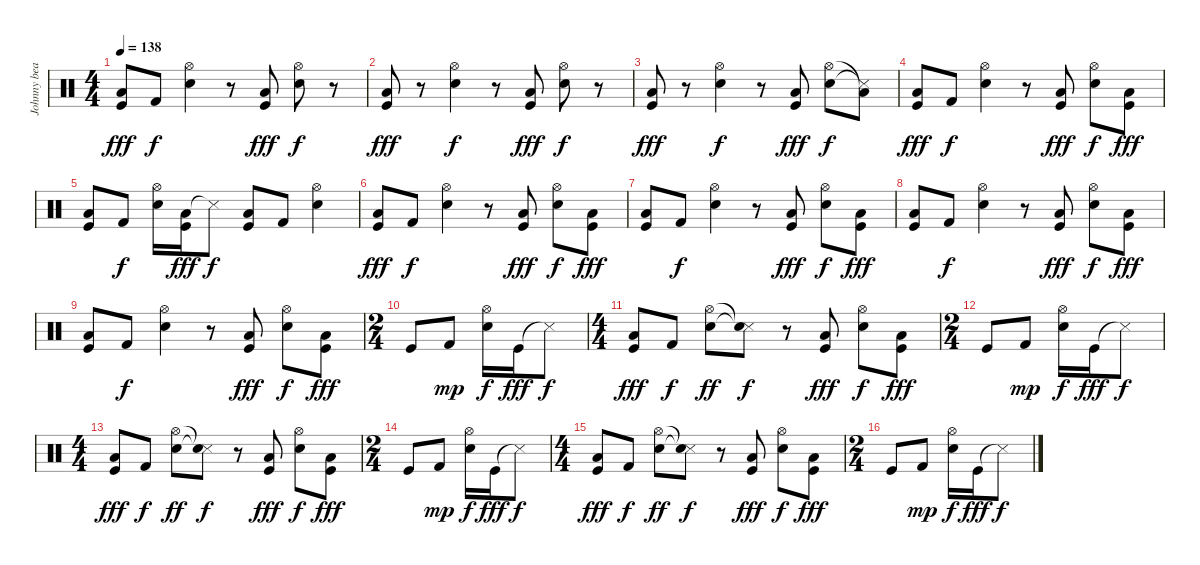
\track ("Johnny beat" "Johnny bea") {instrument percussion}
\staff {score}
\articulation defaults
\ts (4 4)
\tempo 138
\clef neutral
\ks c
("Low Tom (hit)" "Kick (hit)").8{dy fff} "Kick (hit) 2".8{dy f} ("Electric Snare (hit)" "Hi-Hat (open)").4 r.8 ("Low Tom (hit)" "Kick (hit)").8{dy fff} ("Electric Snare (hit)" "Hi-Hat (open)").8{dy f} r.8 |
("Low Tom (hit)" "Kick (hit)").8{dy fff} r.8 ("Electric Snare (hit)" "Hi-Hat (open)").4{dy f} r.8 ("Low Tom (hit)" "Kick (hit)").8{dy fff} ("Electric Snare (hit)" "Hi-Hat (open)").8{dy f} r.8 |
("Low Tom (hit)" "Kick (hit)").8{dy fff} r.8 ("Electric Snare (hit)" "Hi-Hat (open)").4{dy f} r.8 ("Low Tom (hit)" "Kick (hit)").8{dy fff} ("Electric Snare (hit)" "Hi-Hat (open)").8{dy f} ("Snare (side stick) 3"{t} "Low Tom (hit)"{t}).8 |
("Low Tom (hit)" "Kick (hit)").8{dy fff} "Kick (hit) 2".8{dy f} ("Electric Snare (hit)" "Hi-Hat (open)").4 r.8 ("Low Tom (hit)" "Kick (hit)").8{dy fff} ("Electric Snare (hit)" "Hi-Hat (open)").8{dy f} ("Low Tom (hit)" "Kick (hit)").8{dy fff} |
("Low Tom (hit)" "Kick (hit)").8 "Kick (hit) 2".8{dy f} ("Electric Snare (hit)" "Hi-Hat (open)").16 ("Low Tom (hit)" "Kick (hit)").16{dy fff} "Snare (side stick) 3"{t}.8{dy f} ("Kick (hit)" "Low Tom (hit)").8 "Kick (hit) 2".8 ("Electric Snare (hit)" "Hi-Hat (open)").4 |
("Low Tom (hit)" "Kick (hit)").8{dy fff} "Kick (hit) 2".8{dy f} ("Electric Snare (hit)" "Hi-Hat (open)").4 r.8 ("Low Tom (hit)" "Kick (hit)").8{dy fff} ("Electric Snare (hit)" "Hi-Hat (open)").8{dy f} ("Low Tom (hit)" "Kick (hit)").8{dy fff} |
("Low Tom (hit)" "Kick (hit)").8 "Kick (hit) 2".8{dy f} ("Electric Snare (hit)" "Hi-Hat (open)").4 r.8 ("Low Tom (hit)" "Kick (hit)").8{dy fff} ("Electric Snare (hit)" "Hi-Hat (open)").8{dy f} ("Low Tom (hit)" "Kick (hit)").8{dy fff} |
("Low Tom (hit)" "Kick (hit)").8 "Kick (hit) 2".8{dy f} ("Electric Snare (hit)" "Hi-Hat (open)").4 r.8 ("Low Tom (hit)" "Kick (hit)").8{dy fff} ("Electric Snare (hit)" "Hi-Hat (open)").8{dy f} ("Low Tom (hit)" "Kick (hit)").8{dy fff} |
("Low Tom (hit)" "Kick (hit)").8 "Kick (hit) 2".8{dy f} ("Electric Snare (hit)" "Hi-Hat (open)").4 r.8 ("Low Tom (hit)" "Kick (hit)").8{dy fff} ("Electric Snare (hit)" "Hi-Hat (open)").8{dy f} ("Low Tom (hit)" "Kick (hit)").8{dy fff} |
\ts (2 4)
"Kick (hit)".8 "Kick (hit) 2".8{dy mp} ("Electric Snare (hit)" "Hi-Hat (open)").16{dy f} "Kick (hit)".16{dy fff} "Snare (side stick) 3"{t}.8{dy f} |
\ts (4 4)
("Low Tom (hit)" "Kick (hit)").8{dy fff} "Kick (hit) 2".8{dy f} ("Electric Snare (hit)" "Hi-Hat (open)").8{dy ff} ("Snare (side stick) 3"{t} "Snare (hit)"{t}).8{dy f} r.8 ("Low Tom (hit)" "Kick (hit)").8{dy fff} ("Electric Snare (hit)" "Hi-Hat (open)").8{dy f} ("Low Tom (hit)" "Kick (hit)").8{dy fff} |
\ts (2 4)
"Kick (hit)".8 "Kick (hit) 2".8{dy mp} ("Electric Snare (hit)" "Hi-Hat (open)").16{dy f} "Kick (hit)".16{dy fff} "Snare (side stick) 3"{t}.8{dy f} |
\ts (4 4)
("Low Tom (hit)" "Kick (hit)").8{dy fff} "Kick (hit) 2".8{dy f} ("Electric Snare (hit)" "Hi-Hat (open)").8{dy ff} ("Snare (side stick) 3"{t} "Snare (hit)"{t}).8{dy f} r.8 ("Low Tom (hit)" "Kick (hit)").8{dy fff} ("Electric Snare (hit)" "Hi-Hat (open)").8{dy f} ("Low Tom (hit)" "Kick (hit)").8{dy fff} |
\ts (2 4)
"Kick (hit)".8 "Kick (hit) 2".8{dy mp} ("Electric Snare (hit)" "Hi-Hat (open)").16{dy f} "Kick (hit)".16{dy fff} "Snare (side stick) 3"{t}.8{dy f} |
\ts (4 4)
("Low Tom (hit)" "Kick (hit)").8{dy fff} "Kick (hit) 2".8{dy f} ("Electric Snare (hit)" "Hi-Hat (open)").8{dy ff} ("Snare (side stick) 3"{t} "Snare (hit)"{t}).8{dy f} r.8 ("Low Tom (hit)" "Kick (hit)").8{dy fff} ("Electric Snare (hit)" "Hi-Hat (open)").8{dy f} ("Low Tom (hit)" "Kick (hit)").8{dy fff} |
\ts (2 4)
"Kick (hit)".8 "Kick (hit) 2".8{dy mp} ("Electric Snare (hit)" "Hi-Hat (open)").16{dy f} "Kick (hit)".16{dy fff} "Snare (side stick) 3"{t}.8{dy f}
